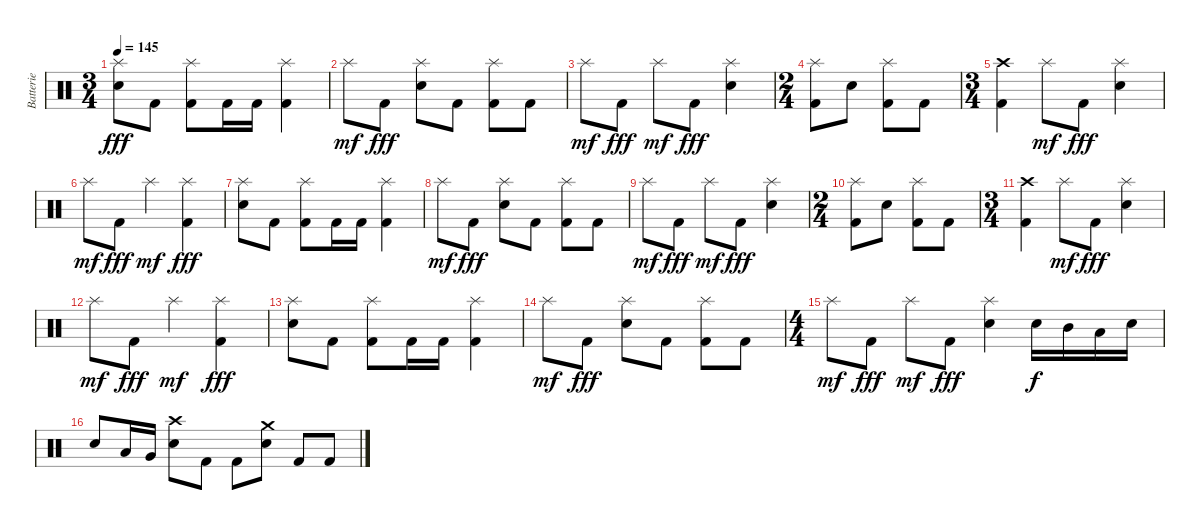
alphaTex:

\track ("Batterie" "Batterie") {instrument percussion}
\staff {score}
\articulation defaults
\ts (3 4)
\tempo 145
\clef neutral
\ks c
("Splash (hit)" "Electric Snare (hit)").8{dy fff} "Kick (hit) 2".8 ("Splash (hit)" "Kick (hit) 2").8 "Kick (hit) 2".16 "Kick (hit) 2".16 ("Splash (hit)" "Kick (hit) 2").4 |
"Splash (hit)".8{dy mf} "Kick (hit) 2".8{dy fff} ("Splash (hit)" "Electric Snare (hit)").8 "Kick (hit) 2".8 ("Splash (hit)" "Kick (hit) 2").8 "Kick (hit) 2".8 |
"Splash (hit)".8{dy mf} "Kick (hit) 2".8{dy fff} "Splash (hit)".8{dy mf} "Kick (hit) 2".8{dy fff} ("Splash (hit)" "Electric Snare (hit)").4 |
\ts (2 4)
("Splash (hit)" "Kick (hit) 2").8 "Electric Snare (hit)".8 ("Splash (hit)" "Kick (hit) 2").8 "Kick (hit) 2".8 |
\ts (3 4)
("Crash high (hit)" "Kick (hit) 2").4 "Splash (hit)".8{dy mf} "Kick (hit) 2".8{dy fff} ("Splash (hit)" "Electric Snare (hit)").4 |
"Splash (hit)".8{dy mf} "Kick (hit) 2".8{dy fff} "Splash (hit)".4{dy mf} ("Splash (hit)" "Kick (hit) 2").4{dy fff} |
("Splash (hit)" "Electric Snare (hit)").8 "Kick (hit) 2".8 ("Splash (hit)" "Kick (hit) 2").8 "Kick (hit) 2".16 "Kick (hit) 2".16 ("Splash (hit)" "Kick (hit) 2").4 |
"Splash (hit)".8{dy mf} "Kick (hit) 2".8{dy fff} ("Splash (hit)" "Electric Snare (hit)").8 "Kick (hit) 2".8 ("Splash (hit)" "Kick (hit) 2").8 "Kick (hit) 2".8 |
"Splash (hit)".8{dy mf} "Kick (hit) 2".8{dy fff} "Splash (hit)".8{dy mf} "Kick (hit) 2".8{dy fff} ("Splash (hit)" "Electric Snare (hit)").4 |
\ts (2 4)
("Splash (hit)" "Kick (hit) 2").8 "Electric Snare (hit)".8 ("Splash (hit)" "Kick (hit) 2").8 "Kick (hit) 2".8 |
\ts (3 4)
("Crash high (hit)" "Kick (hit) 2").4 "Splash (hit)".8{dy mf} "Kick (hit) 2".8{dy fff} ("Splash (hit)" "Electric Snare (hit)").4 |
"Splash (hit)".8{dy mf} "Kick (hit) 2".8{dy fff} "Splash (hit)".4{dy mf} ("Splash (hit)" "Kick (hit) 2").4{dy fff} |
("Splash (hit)" "Electric Snare (hit)").8 "Kick (hit) 2".8 ("Splash (hit)" "Kick (hit) 2").8 "Kick (hit) 2".16 "Kick (hit) 2".16 ("Splash (hit)" "Kick (hit) 2").4 |
"Splash (hit)".8{dy mf} "Kick (hit) 2".8{dy fff} ("Splash (hit)" "Electric Snare (hit)").8 "Kick (hit) 2".8 ("Splash (hit)" "Kick (hit) 2").8 "Kick (hit) 2".8 |
\ts (4 4)
"Splash (hit)".8{dy mf} "Kick (hit) 2".8{dy fff} "Splash (hit)".8{dy mf} "Kick (hit) 2".8{dy fff} ("Splash (hit)" "Electric Snare (hit)").4 "Electric Snare (hit)".16{dy f} "Mid Tom (hit)".16 "Low Tom (hit)".16 "Electric Snare (hit)".16 |
"Electric Snare (hit)".8 "Low Tom (hit)".16 "Very Low Tom (hit)".16 ("Crash high (hit)" "Electric Snare (hit)").8 "Kick (hit) 2".8 "Kick (hit) 2".8 ("Crash medium (hit)" "Electric Snare (hit)").8 "Kick (hit) 2".8 "Kick (hit) 2".8
